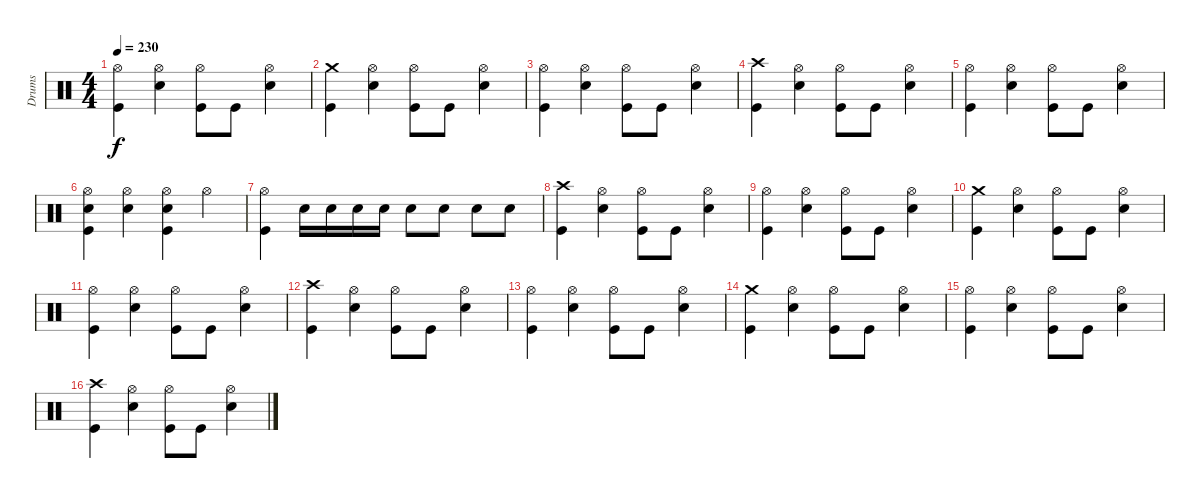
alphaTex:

\track ("Drums" "Drums") {instrument percussion}
\staff {score}
\articulation defaults
\ts (4 4)
\tempo 230
\clef neutral
\ks c
("Hi-Hat (open)" "Kick (hit)").4{dy f} ("Hi-Hat (open)" "Snare (hit) 2").4 ("Hi-Hat (open)" "Kick (hit)").8 "Kick (hit)".8 ("Hi-Hat (open)" "Snare (hit) 2").4 |
("Crash medium (hit)" "Kick (hit)").4 ("Hi-Hat (open)" "Snare (hit) 2").4 ("Hi-Hat (open)" "Kick (hit)").8 "Kick (hit)".8 ("Hi-Hat (open)" "Snare (hit) 2").4 |
("Hi-Hat (open)" "Kick (hit)").4 ("Hi-Hat (open)" "Snare (hit) 2").4 ("Hi-Hat (open)" "Kick (hit)").8 "Kick (hit)".8 ("Hi-Hat (open)" "Snare (hit) 2").4 |
("Crash high (hit)" "Kick (hit)").4 ("Hi-Hat (open)" "Snare (hit) 2").4 ("Hi-Hat (open)" "Kick (hit)").8 "Kick (hit)".8 ("Hi-Hat (open)" "Snare (hit) 2").4 |
("Hi-Hat (open)" "Kick (hit)").4 ("Hi-Hat (open)" "Snare (hit) 2").4 ("Hi-Hat (open)" "Kick (hit)").8 "Kick (hit)".8 ("Hi-Hat (open)" "Snare (hit) 2").4 |
("Hi-Hat (open)" "Snare (hit) 2" "Kick (hit)").4 ("Hi-Hat (open)" "Snare (hit) 2").4 ("Hi-Hat (open)" "Snare (hit) 2" "Kick (hit)").4 "Hi-Hat (open)".4 |
("Hi-Hat (open)" "Kick (hit)").4 "Snare (hit) 2".16 "Snare (hit) 2".16 "Snare (hit) 2".16 "Snare (hit) 2".16 "Snare (hit) 2".8 "Snare (hit) 2".8 "Snare (hit) 2".8 "Snare (hit) 2".8 |
("Crash high (hit)" "Kick (hit)").4 ("Hi-Hat (open)" "Snare (hit) 2").4 ("Hi-Hat (open)" "Kick (hit)").8 "Kick (hit)".8 ("Hi-Hat (open)" "Snare (hit) 2").4 |
("Hi-Hat (open)" "Kick (hit)").4 ("Hi-Hat (open)" "Snare (hit) 2").4 ("Hi-Hat (open)" "Kick (hit)").8 "Kick (hit)".8 ("Hi-Hat (open)" "Snare (hit) 2").4 |
("Crash medium (hit)" "Kick (hit)").4 ("Hi-Hat (open)" "Snare (hit) 2").4 ("Hi-Hat (open)" "Kick (hit)").8 "Kick (hit)".8 ("Hi-Hat (open)" "Snare (hit) 2").4 |
("Hi-Hat (open)" "Kick (hit)").4 ("Hi-Hat (open)" "Snare (hit) 2").4 ("Hi-Hat (open)" "Kick (hit)").8 "Kick (hit)".8 ("Hi-Hat (open)" "Snare (hit) 2").4 |
("Crash high (hit)" "Kick (hit)").4 ("Hi-Hat (open)" "Snare (hit) 2").4 ("Hi-Hat (open)" "Kick (hit)").8 "Kick (hit)".8 ("Hi-Hat (open)" "Snare (hit) 2").4 |
("Hi-Hat (open)" "Kick (hit)").4 ("Hi-Hat (open)" "Snare (hit) 2").4 ("Hi-Hat (open)" "Kick (hit)").8 "Kick (hit)".8 ("Hi-Hat (open)" "Snare (hit) 2").4 |
("Crash medium (hit)" "Kick (hit)").4 ("Hi-Hat (open)" "Snare (hit) 2").4 ("Hi-Hat (open)" "Kick (hit)").8 "Kick (hit)".8 ("Hi-Hat (open)" "Snare (hit) 2").4 |
("Hi-Hat (open)" "Kick (hit)").4 ("Hi-Hat (open)" "Snare (hit) 2").4 ("Hi-Hat (open)" "Kick (hit)").8 "Kick (hit)".8 ("Hi-Hat (open)" "Snare (hit) 2").4 |
("Crash high (hit)" "Kick (hit)").4 ("Hi-Hat (open)" "Snare (hit) 2").4 ("Hi-Hat (open)" "Kick (hit)").8 "Kick (hit)".8 ("Hi-Hat (open)" "Snare (hit) 2").4
